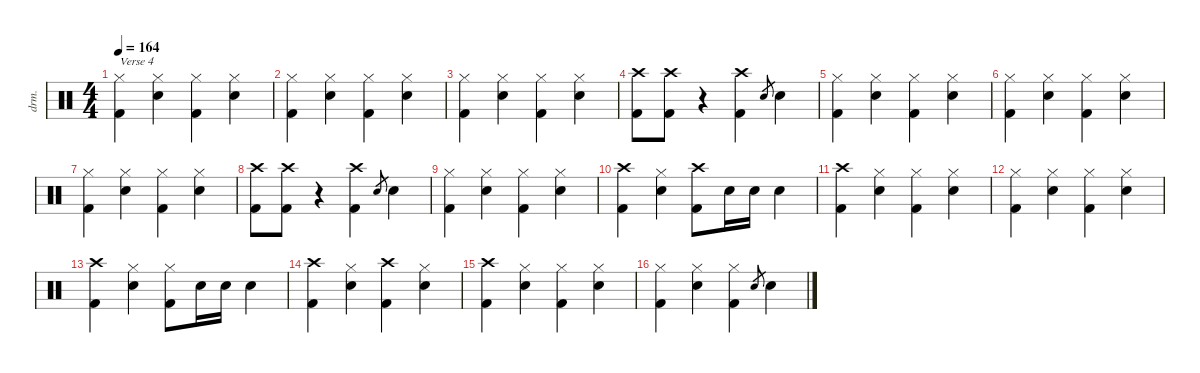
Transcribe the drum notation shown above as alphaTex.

\defaultSystemsLayout 4
\hideDynamics
\bracketExtendMode nobrackets
\track ("Drums" "drm.") {instrument percussion}
\staff {score}
\articulation defaults
\ts (4 4)
\tempo 164
\clef neutral
\ks c
("Hi-Hat (closed)" "Kick (hit) 2").4{txt "Verse 4" dy f} ("Hi-Hat (closed)" "Snare (hit) 2").4 ("Hi-Hat (closed)" "Kick (hit) 2").4 ("Hi-Hat (closed)" "Snare (hit) 2").4 |
("Hi-Hat (closed)" "Kick (hit) 2").4 ("Hi-Hat (closed)" "Snare (hit) 2").4 ("Hi-Hat (closed)" "Kick (hit) 2").4 ("Hi-Hat (closed)" "Snare (hit) 2").4 |
("Hi-Hat (closed)" "Kick (hit) 2").4 ("Hi-Hat (closed)" "Snare (hit) 2").4 ("Hi-Hat (closed)" "Kick (hit) 2").4 ("Hi-Hat (closed)" "Snare (hit) 2").4 |
("Crash high (hit)" "Kick (hit) 2").8{dy fff} ("Crash high (hit)" "Kick (hit) 2").8 r.4 ("Crash high (hit)" "Kick (hit) 2").4 "Snare (hit) 2".8{gr dy mf} "Snare (hit) 2".4{dy f} |
("Hi-Hat (closed)" "Kick (hit) 2").4 ("Hi-Hat (closed)" "Snare (hit) 2").4 ("Hi-Hat (closed)" "Kick (hit) 2").4 ("Hi-Hat (closed)" "Snare (hit) 2").4 |
("Hi-Hat (closed)" "Kick (hit) 2").4 ("Hi-Hat (closed)" "Snare (hit) 2").4 ("Hi-Hat (closed)" "Kick (hit) 2").4 ("Hi-Hat (closed)" "Snare (hit) 2").4 |
("Hi-Hat (closed)" "Kick (hit) 2").4 ("Hi-Hat (closed)" "Snare (hit) 2").4 ("Hi-Hat (closed)" "Kick (hit) 2").4 ("Hi-Hat (closed)" "Snare (hit) 2").4 |
("Crash high (hit)" "Kick (hit) 2").8{dy fff} ("Crash high (hit)" "Kick (hit) 2").8 r.4 ("Crash high (hit)" "Kick (hit) 2").4 "Snare (hit) 2".8{gr dy mf} "Snare (hit) 2".4{dy f} |
("Hi-Hat (closed)" "Kick (hit) 2").4 ("Hi-Hat (closed)" "Snare (hit) 2").4 ("Hi-Hat (closed)" "Kick (hit) 2").4 ("Hi-Hat (closed)" "Snare (hit) 2").4 |
("Crash high (hit)" "Kick (hit) 2").4{dy fff} ("Hi-Hat (closed)" "Snare (hit) 2").4{dy f} ("Crash high (hit)" "Kick (hit) 2").8{dy fff} "Snare (hit) 2".16{dy f} "Snare (hit) 2".16{dy mf} "Snare (hit) 2".4{dy f} |
("Crash high (hit)" "Kick (hit) 2").4{dy fff} ("Hi-Hat (closed)" "Snare (hit) 2").4{dy f} ("Hi-Hat (closed)" "Kick (hit) 2").4 ("Hi-Hat (closed)" "Snare (hit) 2").4 |
("Hi-Hat (closed)" "Kick (hit) 2").4 ("Hi-Hat (closed)" "Snare (hit) 2").4 ("Hi-Hat (closed)" "Kick (hit) 2").4 ("Hi-Hat (closed)" "Snare (hit) 2").4 |
("Crash high (hit)" "Kick (hit) 2").4{dy fff} ("Hi-Hat (closed)" "Snare (hit) 2").4{dy f} ("Hi-Hat (closed)" "Kick (hit) 2").8 "Snare (hit) 2".16 "Snare (hit) 2".16{dy mf} "Snare (hit) 2".4{dy f} |
("Crash high (hit)" "Kick (hit) 2").4{dy fff} ("Hi-Hat (closed)" "Snare (hit) 2").4{dy f} ("Crash high (hit)" "Kick (hit) 2").4{dy fff} ("Hi-Hat (closed)" "Snare (hit) 2").4{dy f} |
("Crash high (hit)" "Kick (hit) 2").4{dy fff} ("Hi-Hat (closed)" "Snare (hit) 2").4{dy f} ("Hi-Hat (closed)" "Kick (hit) 2").4 ("Hi-Hat (closed)" "Snare (hit) 2").4 |
("Hi-Hat (closed)" "Kick (hit) 2").4 ("Hi-Hat (closed)" "Snare (hit) 2").4 ("Hi-Hat (closed)" "Kick (hit) 2").4 "Snare (hit) 2".8{gr dy mf} "Snare (hit) 2".4{dy f}
